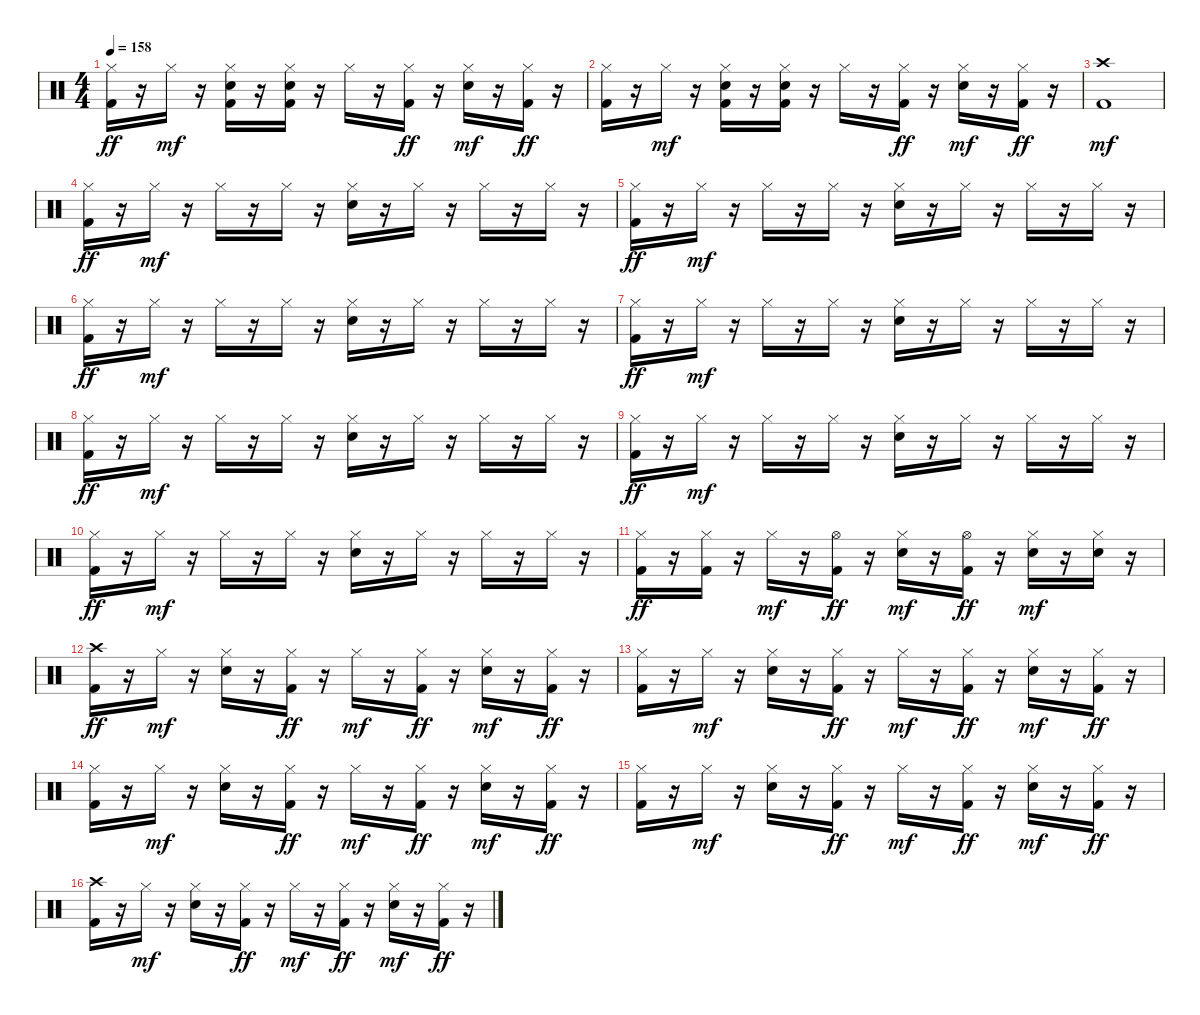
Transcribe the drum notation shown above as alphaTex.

\track ("   " "   ") {instrument percussion}
\staff
\articulation defaults
\ts (4 4)
\tempo 158
\clef neutral
\ks c
("Hi-Hat (closed)" "Kick (hit) 2").16{dy ff} r.16 "Hi-Hat (closed)".16{dy mf} r.16 ("Hi-Hat (closed)" "Electric Snare (hit)" "Kick (hit) 2").16 r.16 ("Hi-Hat (closed)" "Electric Snare (hit)" "Kick (hit) 2").16 r.16 "Hi-Hat (closed)".16 r.16 ("Hi-Hat (closed)" "Kick (hit) 2").16{dy ff} r.16 ("Hi-Hat (closed)" "Electric Snare (hit)").16{dy mf} r.16 ("Hi-Hat (closed)" "Kick (hit) 2").16{dy ff} r.16 |
("Hi-Hat (closed)" "Kick (hit) 2").16 r.16 "Hi-Hat (closed)".16{dy mf} r.16 ("Hi-Hat (closed)" "Electric Snare (hit)" "Kick (hit) 2").16 r.16 ("Hi-Hat (closed)" "Electric Snare (hit)" "Kick (hit) 2").16 r.16 "Hi-Hat (closed)".16 r.16 ("Hi-Hat (closed)" "Kick (hit) 2").16{dy ff} r.16 ("Hi-Hat (closed)" "Electric Snare (hit)").16{dy mf} r.16 ("Hi-Hat (closed)" "Kick (hit) 2").16{dy ff} r.16 |
("Crash high (hit)" "Kick (hit) 2").1{dy mf} |
("Hi-Hat (closed)" "Kick (hit) 2").16{dy ff} r.16 "Hi-Hat (closed)".16{dy mf} r.16 "Hi-Hat (closed)".16 r.16 "Hi-Hat (closed)".16 r.16 ("Hi-Hat (closed)" "Hand Clap (hit)").16 r.16 "Hi-Hat (closed)".16 r.16 "Hi-Hat (closed)".16 r.16 "Hi-Hat (closed)".16 r.16 |
("Hi-Hat (closed)" "Kick (hit) 2").16{dy ff} r.16 "Hi-Hat (closed)".16{dy mf} r.16 "Hi-Hat (closed)".16 r.16 "Hi-Hat (closed)".16 r.16 ("Hi-Hat (closed)" "Hand Clap (hit)").16 r.16 "Hi-Hat (closed)".16 r.16 "Hi-Hat (closed)".16 r.16 "Hi-Hat (closed)".16 r.16 |
("Hi-Hat (closed)" "Kick (hit) 2").16{dy ff} r.16 "Hi-Hat (closed)".16{dy mf} r.16 "Hi-Hat (closed)".16 r.16 "Hi-Hat (closed)".16 r.16 ("Hi-Hat (closed)" "Hand Clap (hit)").16 r.16 "Hi-Hat (closed)".16 r.16 "Hi-Hat (closed)".16 r.16 "Hi-Hat (closed)".16 r.16 |
("Hi-Hat (closed)" "Kick (hit) 2").16{dy ff} r.16 "Hi-Hat (closed)".16{dy mf} r.16 "Hi-Hat (closed)".16 r.16 "Hi-Hat (closed)".16 r.16 ("Hi-Hat (closed)" "Hand Clap (hit)").16 r.16 "Hi-Hat (closed)".16 r.16 "Hi-Hat (closed)".16 r.16 "Hi-Hat (closed)".16 r.16 |
("Hi-Hat (closed)" "Kick (hit) 2").16{dy ff} r.16 "Hi-Hat (closed)".16{dy mf} r.16 "Hi-Hat (closed)".16 r.16 "Hi-Hat (closed)".16 r.16 ("Hi-Hat (closed)" "Hand Clap (hit)").16 r.16 "Hi-Hat (closed)".16 r.16 "Hi-Hat (closed)".16 r.16 "Hi-Hat (closed)".16 r.16 |
("Hi-Hat (closed)" "Kick (hit) 2").16{dy ff} r.16 "Hi-Hat (closed)".16{dy mf} r.16 "Hi-Hat (closed)".16 r.16 "Hi-Hat (closed)".16 r.16 ("Hi-Hat (closed)" "Hand Clap (hit)").16 r.16 "Hi-Hat (closed)".16 r.16 "Hi-Hat (closed)".16 r.16 "Hi-Hat (closed)".16 r.16 |
("Hi-Hat (closed)" "Kick (hit) 2").16{dy ff} r.16 "Hi-Hat (closed)".16{dy mf} r.16 "Hi-Hat (closed)".16 r.16 "Hi-Hat (closed)".16 r.16 ("Hi-Hat (closed)" "Hand Clap (hit)").16 r.16 "Hi-Hat (closed)".16 r.16 "Hi-Hat (closed)".16 r.16 "Hi-Hat (closed)".16 r.16 |
("Hi-Hat (closed)" "Kick (hit) 2").16{dy ff} r.16 ("Hi-Hat (closed)" "Kick (hit) 2").16 r.16 "Hi-Hat (closed)".16{dy mf} r.16 ("Hi-Hat (open)" "Kick (hit) 2").16{dy ff} r.16 ("Hi-Hat (closed)" "Hand Clap (hit)").16{dy mf} r.16 ("Hi-Hat (open)" "Kick (hit) 2").16{dy ff} r.16 ("Hi-Hat (closed)" "Electric Snare (hit)").16{dy mf} r.16 ("Hi-Hat (closed)" "Electric Snare (hit)").16 r.16 |
("Crash high (hit)" "Kick (hit) 2").16{dy ff} r.16 "Hi-Hat (closed)".16{dy mf} r.16 ("Hi-Hat (closed)" "Electric Snare (hit)").16 r.16 ("Hi-Hat (closed)" "Kick (hit) 2").16{dy ff} r.16 "Hi-Hat (closed)".16{dy mf} r.16 ("Hi-Hat (closed)" "Kick (hit) 2").16{dy ff} r.16 ("Hi-Hat (closed)" "Electric Snare (hit)").16{dy mf} r.16 ("Hi-Hat (closed)" "Kick (hit) 2").16{dy ff} r.16 |
("Hi-Hat (closed)" "Kick (hit) 2").16 r.16 "Hi-Hat (closed)".16{dy mf} r.16 ("Hi-Hat (closed)" "Electric Snare (hit)").16 r.16 ("Hi-Hat (closed)" "Kick (hit) 2").16{dy ff} r.16 "Hi-Hat (closed)".16{dy mf} r.16 ("Hi-Hat (closed)" "Kick (hit) 2").16{dy ff} r.16 ("Hi-Hat (closed)" "Electric Snare (hit)").16{dy mf} r.16 ("Hi-Hat (closed)" "Kick (hit) 2").16{dy ff} r.16 |
("Hi-Hat (closed)" "Kick (hit) 2").16 r.16 "Hi-Hat (closed)".16{dy mf} r.16 ("Hi-Hat (closed)" "Electric Snare (hit)").16 r.16 ("Hi-Hat (closed)" "Kick (hit) 2").16{dy ff} r.16 "Hi-Hat (closed)".16{dy mf} r.16 ("Hi-Hat (closed)" "Kick (hit) 2").16{dy ff} r.16 ("Hi-Hat (closed)" "Electric Snare (hit)").16{dy mf} r.16 ("Hi-Hat (closed)" "Kick (hit) 2").16{dy ff} r.16 |
("Hi-Hat (closed)" "Kick (hit) 2").16 r.16 "Hi-Hat (closed)".16{dy mf} r.16 ("Hi-Hat (closed)" "Electric Snare (hit)").16 r.16 ("Hi-Hat (closed)" "Kick (hit) 2").16{dy ff} r.16 "Hi-Hat (closed)".16{dy mf} r.16 ("Hi-Hat (closed)" "Kick (hit) 2").16{dy ff} r.16 ("Hi-Hat (closed)" "Electric Snare (hit)").16{dy mf} r.16 ("Hi-Hat (closed)" "Kick (hit) 2").16{dy ff} r.16 |
("Crash high (hit)" "Kick (hit) 2").16 r.16 "Hi-Hat (closed)".16{dy mf} r.16 ("Hi-Hat (closed)" "Electric Snare (hit)").16 r.16 ("Hi-Hat (closed)" "Kick (hit) 2").16{dy ff} r.16 "Hi-Hat (closed)".16{dy mf} r.16 ("Hi-Hat (closed)" "Kick (hit) 2").16{dy ff} r.16 ("Hi-Hat (closed)" "Electric Snare (hit)").16{dy mf} r.16 ("Hi-Hat (closed)" "Kick (hit) 2").16{dy ff} r.16
